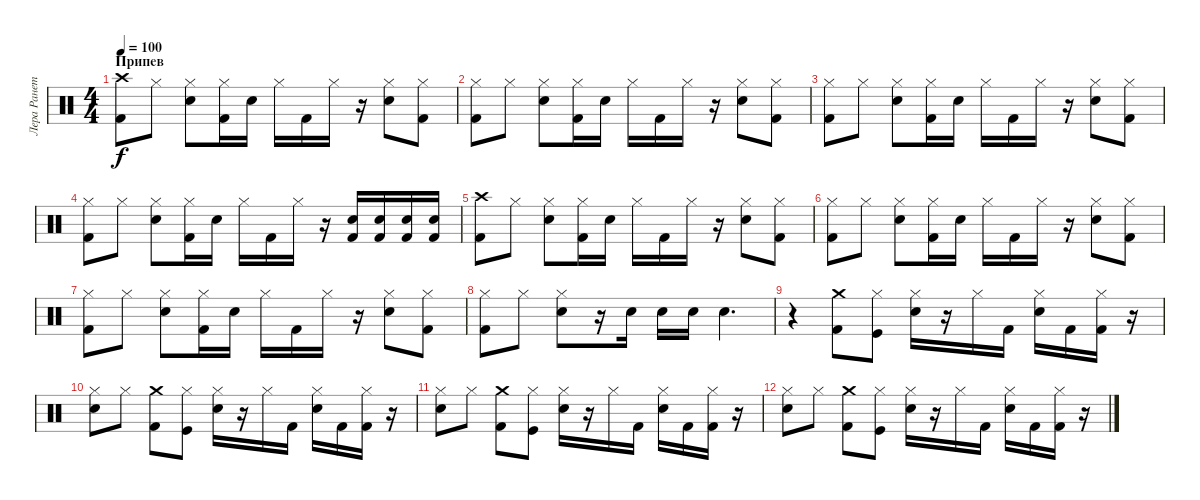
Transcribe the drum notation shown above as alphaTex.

\track ("Лера Ранетка" "Лера Ранет") {instrument percussion}
\staff {score}
\articulation defaults
\ts (4 4)
\section ("" "Припев")
\tempo 100
\clef neutral
\ks c
("Crash high (hit)" "Kick (hit) 2").8{dy f} "Hi-Hat (closed)".8 ("Hi-Hat (closed)" "Snare (hit) 2").8 ("Hi-Hat (closed)" "Kick (hit) 2").16 "Snare (hit) 2".16 "Hi-Hat (closed)".16 "Kick (hit) 2".16 "Hi-Hat (closed)".16 r.16 ("Hi-Hat (closed)" "Snare (hit) 2").8 ("Hi-Hat (closed)" "Kick (hit) 2").8 |
("Hi-Hat (closed)" "Kick (hit) 2").8 "Hi-Hat (closed)".8 ("Hi-Hat (closed)" "Snare (hit) 2").8 ("Hi-Hat (closed)" "Kick (hit) 2").16 "Snare (hit) 2".16 "Hi-Hat (closed)".16 "Kick (hit) 2".16 "Hi-Hat (closed)".16 r.16 ("Hi-Hat (closed)" "Snare (hit) 2").8 ("Hi-Hat (closed)" "Kick (hit) 2").8 |
("Hi-Hat (closed)" "Kick (hit) 2").8 "Hi-Hat (closed)".8 ("Hi-Hat (closed)" "Snare (hit) 2").8 ("Hi-Hat (closed)" "Kick (hit) 2").16 "Snare (hit) 2".16 "Hi-Hat (closed)".16 "Kick (hit) 2".16 "Hi-Hat (closed)".16 r.16 ("Hi-Hat (closed)" "Snare (hit) 2").8 ("Hi-Hat (closed)" "Kick (hit) 2").8 |
("Hi-Hat (closed)" "Kick (hit) 2").8 "Hi-Hat (closed)".8 ("Hi-Hat (closed)" "Snare (hit) 2").8 ("Hi-Hat (closed)" "Kick (hit) 2").16 "Snare (hit) 2".16 "Hi-Hat (closed)".16 "Kick (hit) 2".16 "Hi-Hat (closed)".16 r.16 ("Snare (hit) 2" "Kick (hit) 2").16 ("Snare (hit) 2" "Kick (hit) 2").16 ("Snare (hit) 2" "Kick (hit) 2").16 ("Snare (hit) 2" "Kick (hit) 2").16 |
("Crash high (hit)" "Kick (hit) 2").8 "Hi-Hat (closed)".8 ("Hi-Hat (closed)" "Snare (hit) 2").8 ("Hi-Hat (closed)" "Kick (hit) 2").16 "Snare (hit) 2".16 "Hi-Hat (closed)".16 "Kick (hit) 2".16 "Hi-Hat (closed)".16 r.16 ("Hi-Hat (closed)" "Snare (hit) 2").8 ("Hi-Hat (closed)" "Kick (hit) 2").8 |
("Hi-Hat (closed)" "Kick (hit) 2").8 "Hi-Hat (closed)".8 ("Hi-Hat (closed)" "Snare (hit) 2").8 ("Hi-Hat (closed)" "Kick (hit) 2").16 "Snare (hit) 2".16 "Hi-Hat (closed)".16 "Kick (hit) 2".16 "Hi-Hat (closed)".16 r.16 ("Hi-Hat (closed)" "Snare (hit) 2").8 ("Hi-Hat (closed)" "Kick (hit) 2").8 |
("Hi-Hat (closed)" "Kick (hit) 2").8 "Hi-Hat (closed)".8 ("Hi-Hat (closed)" "Snare (hit) 2").8 ("Hi-Hat (closed)" "Kick (hit) 2").16 "Snare (hit) 2".16 "Hi-Hat (closed)".16 "Kick (hit) 2".16 "Hi-Hat (closed)".16 r.16 ("Hi-Hat (closed)" "Snare (hit) 2").8 ("Hi-Hat (closed)" "Kick (hit) 2").8 |
("Hi-Hat (closed)" "Kick (hit) 2").8 "Hi-Hat (closed)".8 ("Hi-Hat (closed)" "Snare (hit) 2").8 r.16 "Snare (hit) 2".16 "Snare (hit) 2".16 "Snare (hit) 2".16 "Snare (hit) 2".4{d} |
r.4 ("Crash medium (hit)" "Kick (hit) 2").8 ("Hi-Hat (closed)" "Kick (hit)").8 ("Hi-Hat (closed)" "Snare (hit) 2").16 r.16 "Hi-Hat (closed)".16 "Kick (hit) 2".16 ("Hi-Hat (closed)" "Snare (hit) 2").16 "Kick (hit) 2".16 ("Hi-Hat (closed)" "Kick (hit) 2").16 r.16 |
("Hi-Hat (closed)" "Snare (hit) 2").8 "Hi-Hat (closed)".8 ("Crash medium (hit)" "Kick (hit) 2").8 ("Hi-Hat (closed)" "Kick (hit)").8 ("Hi-Hat (closed)" "Snare (hit) 2").16 r.16 "Hi-Hat (closed)".16 "Kick (hit) 2".16 ("Hi-Hat (closed)" "Snare (hit) 2").16 "Kick (hit) 2".16 ("Hi-Hat (closed)" "Kick (hit) 2").16 r.16 |
("Hi-Hat (closed)" "Snare (hit) 2").8 "Hi-Hat (closed)".8 ("Crash medium (hit)" "Kick (hit) 2").8 ("Hi-Hat (closed)" "Kick (hit)").8 ("Hi-Hat (closed)" "Snare (hit) 2").16 r.16 "Hi-Hat (closed)".16 "Kick (hit) 2".16 ("Hi-Hat (closed)" "Snare (hit) 2").16 "Kick (hit) 2".16 ("Hi-Hat (closed)" "Kick (hit) 2").16 r.16 |
("Hi-Hat (closed)" "Snare (hit) 2").8 "Hi-Hat (closed)".8 ("Crash medium (hit)" "Kick (hit) 2").8 ("Hi-Hat (closed)" "Kick (hit)").8 ("Hi-Hat (closed)" "Snare (hit) 2").16 r.16 "Hi-Hat (closed)".16 "Kick (hit) 2".16 ("Hi-Hat (closed)" "Snare (hit) 2").16 "Kick (hit) 2".16 ("Hi-Hat (closed)" "Kick (hit) 2").16 r.16
